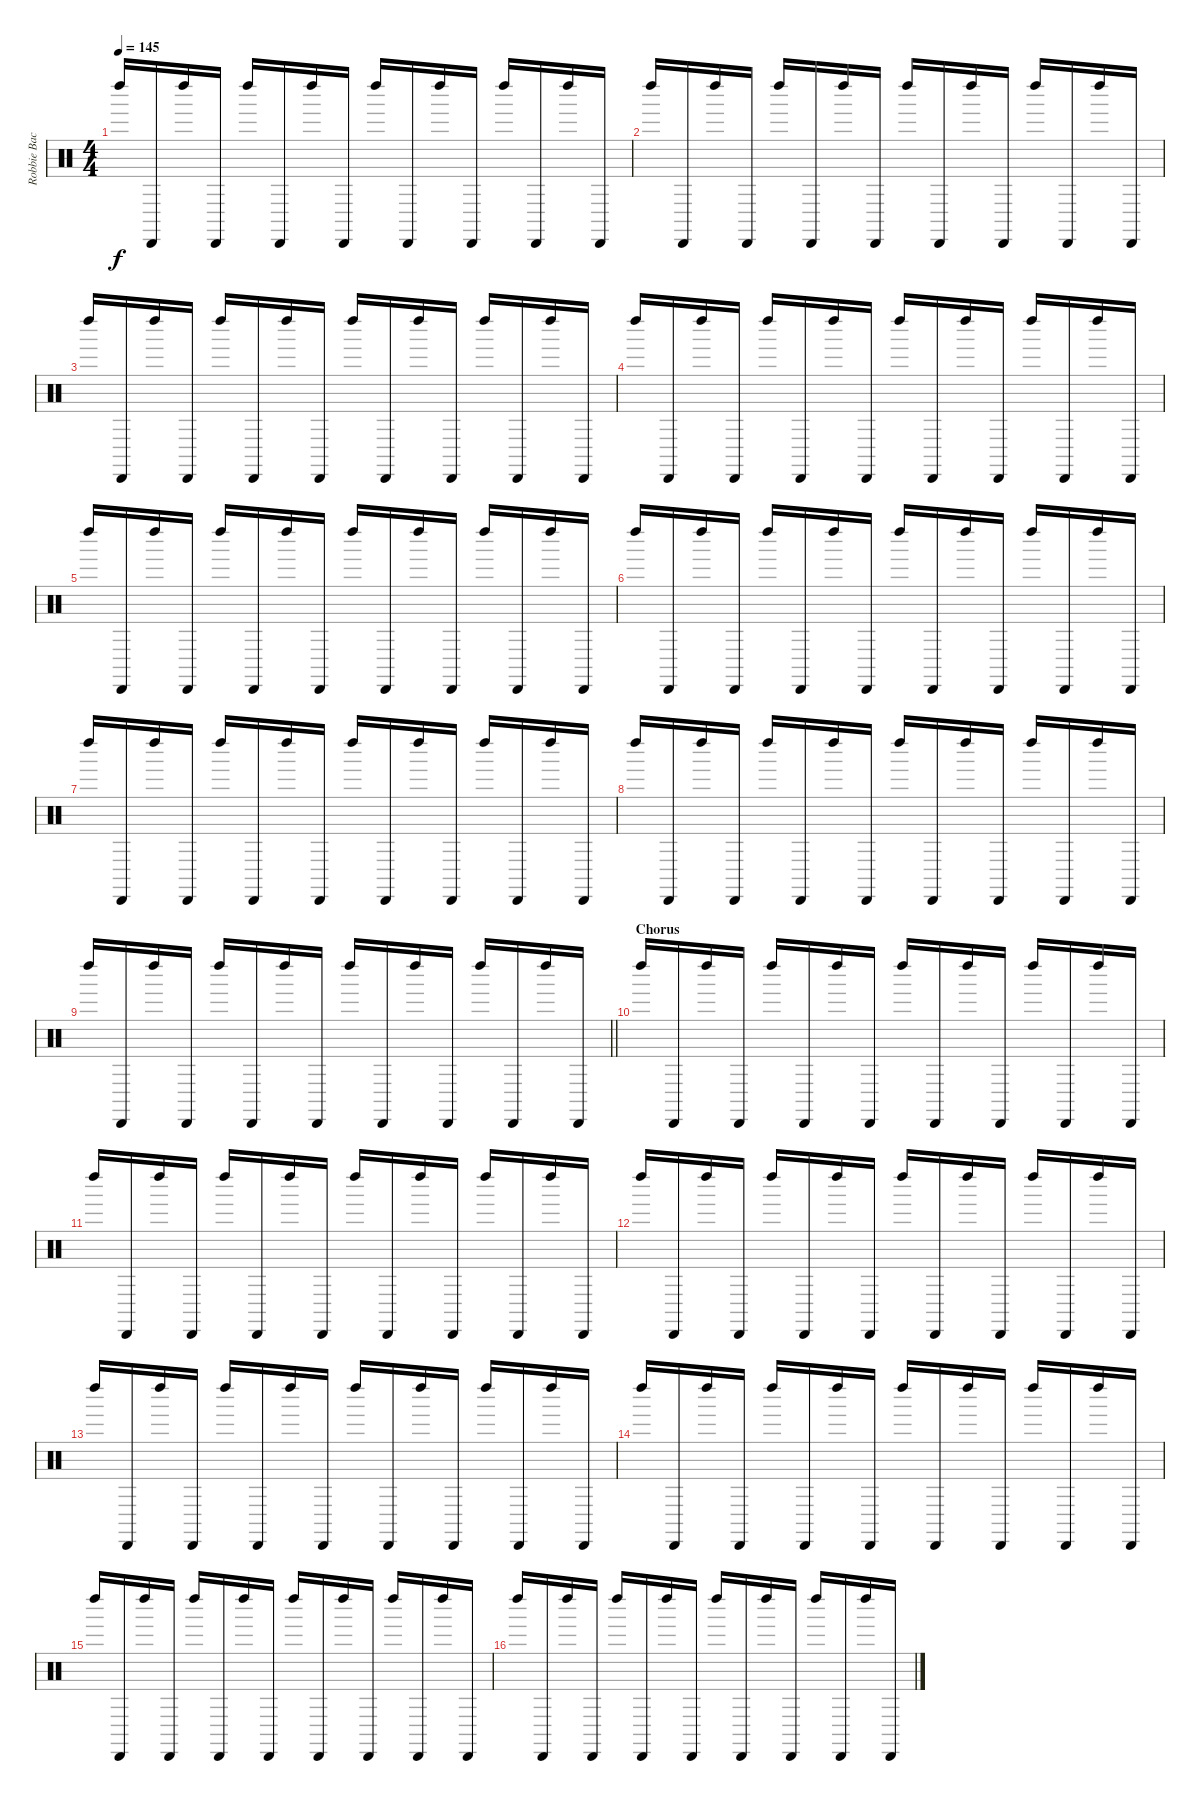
\track ("Robbie Bachman 2" "Robbie Bac") {instrument percussion}
\staff {score}
\articulation defaults
\ts (4 4)
\tempo 145
\clef neutral
\ks c "Left Maraca (hit)".16{dy f} "Cabasa (hit)".16 "Left Maraca (hit)".16 "Cabasa (hit)".16 "Left Maraca (hit)".16 "Cabasa (hit)".16 "Left Maraca (hit)".16 "Cabasa (hit)".16 "Left Maraca (hit)".16 "Cabasa (hit)".16 "Left Maraca (hit)".16 "Cabasa (hit)".16 "Left Maraca (hit)".16 "Cabasa (hit)".16 "Left Maraca (hit)".16 "Cabasa (hit)".16
|
"Left Maraca (hit)".16 "Cabasa (hit)".16 "Left Maraca (hit)".16 "Cabasa (hit)".16 "Left Maraca (hit)".16 "Cabasa (hit)".16 "Left Maraca (hit)".16 "Cabasa (hit)".16 "Left Maraca (hit)".16 "Cabasa (hit)".16 "Left Maraca (hit)".16 "Cabasa (hit)".16 "Left Maraca (hit)".16 "Cabasa (hit)".16 "Left Maraca (hit)".16 "Cabasa (hit)".16 |
"Left Maraca (hit)".16 "Cabasa (hit)".16 "Left Maraca (hit)".16 "Cabasa (hit)".16 "Left Maraca (hit)".16 "Cabasa (hit)".16 "Left Maraca (hit)".16 "Cabasa (hit)".16 "Left Maraca (hit)".16 "Cabasa (hit)".16 "Left Maraca (hit)".16 "Cabasa (hit)".16 "Left Maraca (hit)".16 "Cabasa (hit)".16 "Left Maraca (hit)".16 "Cabasa (hit)".16 |
"Left Maraca (hit)".16 "Cabasa (hit)".16 "Left Maraca (hit)".16 "Cabasa (hit)".16 "Left Maraca (hit)".16 "Cabasa (hit)".16 "Left Maraca (hit)".16 "Cabasa (hit)".16 "Left Maraca (hit)".16 "Cabasa (hit)".16 "Left Maraca (hit)".16 "Cabasa (hit)".16 "Left Maraca (hit)".16 "Cabasa (hit)".16 "Left Maraca (hit)".16 "Cabasa (hit)".16 |
"Left Maraca (hit)".16 "Cabasa (hit)".16 "Left Maraca (hit)".16 "Cabasa (hit)".16 "Left Maraca (hit)".16 "Cabasa (hit)".16 "Left Maraca (hit)".16 "Cabasa (hit)".16 "Left Maraca (hit)".16 "Cabasa (hit)".16 "Left Maraca (hit)".16 "Cabasa (hit)".16 "Left Maraca (hit)".16 "Cabasa (hit)".16 "Left Maraca (hit)".16 "Cabasa (hit)".16 |
"Left Maraca (hit)".16 "Cabasa (hit)".16 "Left Maraca (hit)".16 "Cabasa (hit)".16 "Left Maraca (hit)".16 "Cabasa (hit)".16 "Left Maraca (hit)".16 "Cabasa (hit)".16 "Left Maraca (hit)".16 "Cabasa (hit)".16 "Left Maraca (hit)".16 "Cabasa (hit)".16 "Left Maraca (hit)".16 "Cabasa (hit)".16 "Left Maraca (hit)".16 "Cabasa (hit)".16 |
"Left Maraca (hit)".16 "Cabasa (hit)".16 "Left Maraca (hit)".16 "Cabasa (hit)".16 "Left Maraca (hit)".16 "Cabasa (hit)".16 "Left Maraca (hit)".16 "Cabasa (hit)".16 "Left Maraca (hit)".16 "Cabasa (hit)".16 "Left Maraca (hit)".16 "Cabasa (hit)".16 "Left Maraca (hit)".16 "Cabasa (hit)".16 "Left Maraca (hit)".16 "Cabasa (hit)".16 |
"Left Maraca (hit)".16 "Cabasa (hit)".16 "Left Maraca (hit)".16 "Cabasa (hit)".16 "Left Maraca (hit)".16 "Cabasa (hit)".16 "Left Maraca (hit)".16 "Cabasa (hit)".16 "Left Maraca (hit)".16 "Cabasa (hit)".16 "Left Maraca (hit)".16 "Cabasa (hit)".16 "Left Maraca (hit)".16 "Cabasa (hit)".16 "Left Maraca (hit)".16 "Cabasa (hit)".16 |
\barLineRight lightlight "Left Maraca (hit)".16 "Cabasa (hit)".16 "Left Maraca (hit)".16 "Cabasa (hit)".16 "Left Maraca (hit)".16 "Cabasa (hit)".16 "Left Maraca (hit)".16 "Cabasa (hit)".16 "Left Maraca (hit)".16 "Cabasa (hit)".16 "Left Maraca (hit)".16 "Cabasa (hit)".16 "Left Maraca (hit)".16 "Cabasa (hit)".16 "Left Maraca (hit)".16 "Cabasa (hit)".16
|
\section ("" "Chorus")
"Left Maraca (hit)".16 "Cabasa (hit)".16 "Left Maraca (hit)".16 "Cabasa (hit)".16 "Left Maraca (hit)".16 "Cabasa (hit)".16 "Left Maraca (hit)".16 "Cabasa (hit)".16 "Left Maraca (hit)".16 "Cabasa (hit)".16 "Left Maraca (hit)".16 "Cabasa (hit)".16 "Left Maraca (hit)".16 "Cabasa (hit)".16 "Left Maraca (hit)".16 "Cabasa (hit)".16 |
"Left Maraca (hit)".16 "Cabasa (hit)".16 "Left Maraca (hit)".16 "Cabasa (hit)".16 "Left Maraca (hit)".16 "Cabasa (hit)".16 "Left Maraca (hit)".16 "Cabasa (hit)".16 "Left Maraca (hit)".16 "Cabasa (hit)".16 "Left Maraca (hit)".16 "Cabasa (hit)".16 "Left Maraca (hit)".16 "Cabasa (hit)".16 "Left Maraca (hit)".16 "Cabasa (hit)".16 |
"Left Maraca (hit)".16 "Cabasa (hit)".16 "Left Maraca (hit)".16 "Cabasa (hit)".16 "Left Maraca (hit)".16 "Cabasa (hit)".16 "Left Maraca (hit)".16 "Cabasa (hit)".16 "Left Maraca (hit)".16 "Cabasa (hit)".16 "Left Maraca (hit)".16 "Cabasa (hit)".16 "Left Maraca (hit)".16 "Cabasa (hit)".16 "Left Maraca (hit)".16 "Cabasa (hit)".16 |
"Left Maraca (hit)".16 "Cabasa (hit)".16 "Left Maraca (hit)".16 "Cabasa (hit)".16 "Left Maraca (hit)".16 "Cabasa (hit)".16 "Left Maraca (hit)".16 "Cabasa (hit)".16 "Left Maraca (hit)".16 "Cabasa (hit)".16 "Left Maraca (hit)".16 "Cabasa (hit)".16 "Left Maraca (hit)".16 "Cabasa (hit)".16 "Left Maraca (hit)".16 "Cabasa (hit)".16 |
"Left Maraca (hit)".16 "Cabasa (hit)".16 "Left Maraca (hit)".16 "Cabasa (hit)".16 "Left Maraca (hit)".16 "Cabasa (hit)".16 "Left Maraca (hit)".16 "Cabasa (hit)".16 "Left Maraca (hit)".16 "Cabasa (hit)".16 "Left Maraca (hit)".16 "Cabasa (hit)".16 "Left Maraca (hit)".16 "Cabasa (hit)".16 "Left Maraca (hit)".16 "Cabasa (hit)".16 |
"Left Maraca (hit)".16 "Cabasa (hit)".16 "Left Maraca (hit)".16 "Cabasa (hit)".16 "Left Maraca (hit)".16 "Cabasa (hit)".16 "Left Maraca (hit)".16 "Cabasa (hit)".16 "Left Maraca (hit)".16 "Cabasa (hit)".16 "Left Maraca (hit)".16 "Cabasa (hit)".16 "Left Maraca (hit)".16 "Cabasa (hit)".16 "Left Maraca (hit)".16 "Cabasa (hit)".16 |
"Left Maraca (hit)".16 "Cabasa (hit)".16 "Left Maraca (hit)".16 "Cabasa (hit)".16 "Left Maraca (hit)".16 "Cabasa (hit)".16 "Left Maraca (hit)".16 "Cabasa (hit)".16 "Left Maraca (hit)".16 "Cabasa (hit)".16 "Left Maraca (hit)".16 "Cabasa (hit)".16 "Left Maraca (hit)".16 "Cabasa (hit)".16 "Left Maraca (hit)".16 "Cabasa (hit)".16
